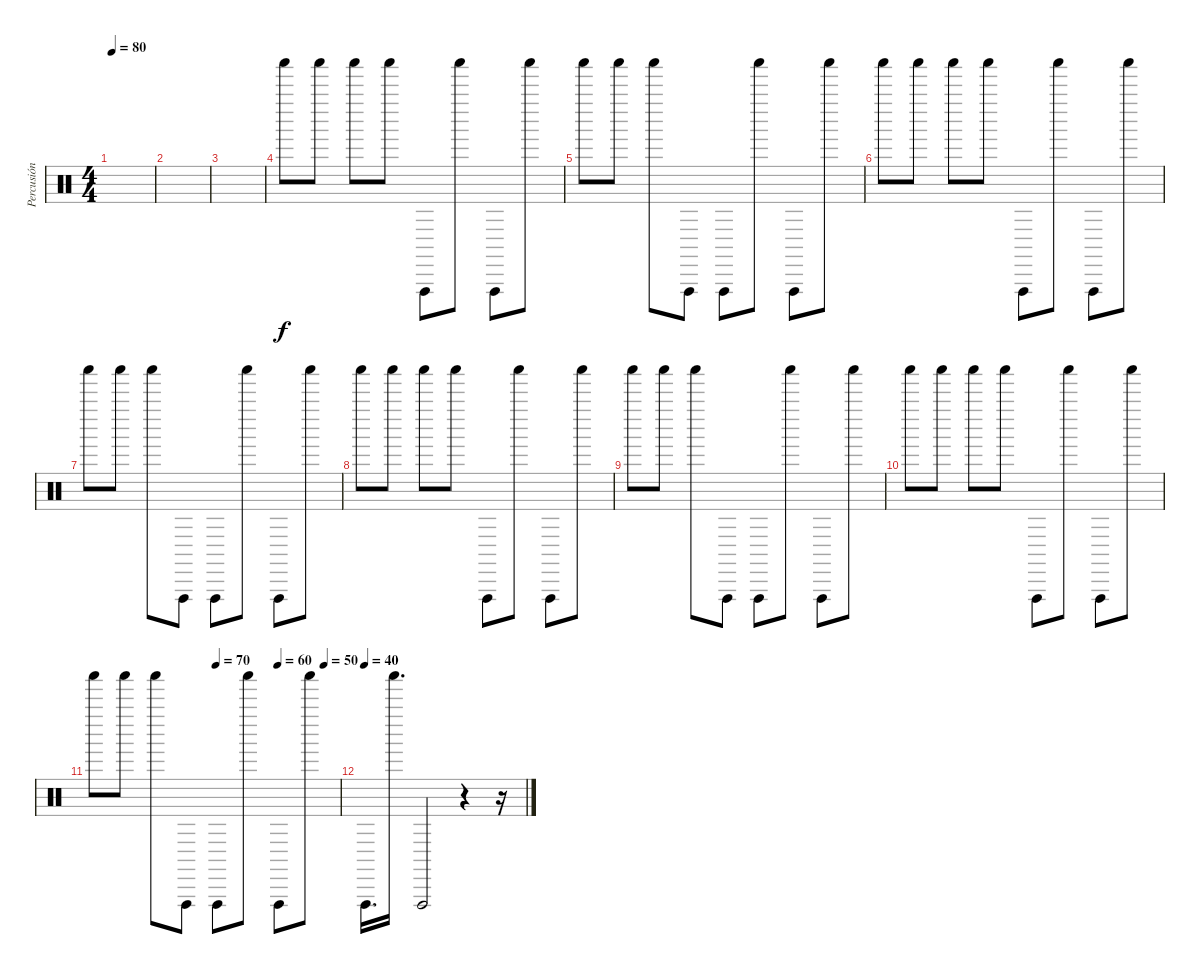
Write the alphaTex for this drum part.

\track ("Percusión" "Percusión") {instrument percussion}
\staff {score}
\articulation defaults
\ts (4 4)
\tempo 80
\clef neutral
\ks c
|
|
|
"Shaker (hit)".8 "Shaker (hit)".8 "Shaker (hit)".8 "Shaker (hit)".8 "Vibraslap (hit)".8 "Shaker (hit)".8 "Vibraslap (hit)".8 "Shaker (hit)".8 |
"Shaker (hit)".8 "Shaker (hit)".8 "Shaker (hit)".8 "Vibraslap (hit)".8 "Vibraslap (hit)".8 "Shaker (hit)".8 "Vibraslap (hit)".8 "Shaker (hit)".8 |
"Shaker (hit)".8 "Shaker (hit)".8 "Shaker (hit)".8 "Shaker (hit)".8 "Vibraslap (hit)".8 "Shaker (hit)".8 "Vibraslap (hit)".8 "Shaker (hit)".8 |
"Shaker (hit)".8 "Shaker (hit)".8 "Shaker (hit)".8 "Vibraslap (hit)".8 "Vibraslap (hit)".8 "Shaker (hit)".8 "Vibraslap (hit)".8 "Shaker (hit)".8 |
"Shaker (hit)".8 "Shaker (hit)".8 "Shaker (hit)".8 "Shaker (hit)".8 "Vibraslap (hit)".8 "Shaker (hit)".8 "Vibraslap (hit)".8 "Shaker (hit)".8 |
"Shaker (hit)".8 "Shaker (hit)".8 "Shaker (hit)".8 "Vibraslap (hit)".8 "Vibraslap (hit)".8 "Shaker (hit)".8 "Vibraslap (hit)".8 "Shaker (hit)".8 |
"Shaker (hit)".8 "Shaker (hit)".8 "Shaker (hit)".8 "Shaker (hit)".8 "Vibraslap (hit)".8 "Shaker (hit)".8 "Vibraslap (hit)".8 "Shaker (hit)".8 |
\tempo (70 0.5)
\tempo (60 0.75)
\tempo (50 0.9375)
"Shaker (hit)".8 "Shaker (hit)".8 "Shaker (hit)".8 "Vibraslap (hit)".8 "Vibraslap (hit)".8 "Shaker (hit)".8 "Vibraslap (hit)".8 "Shaker (hit)".8 |
\tempo (40)
"Vibraslap (hit)".16{d} "Shaker (hit)".16{d} "Vibraslap (hit)".2 r.4 r.16
